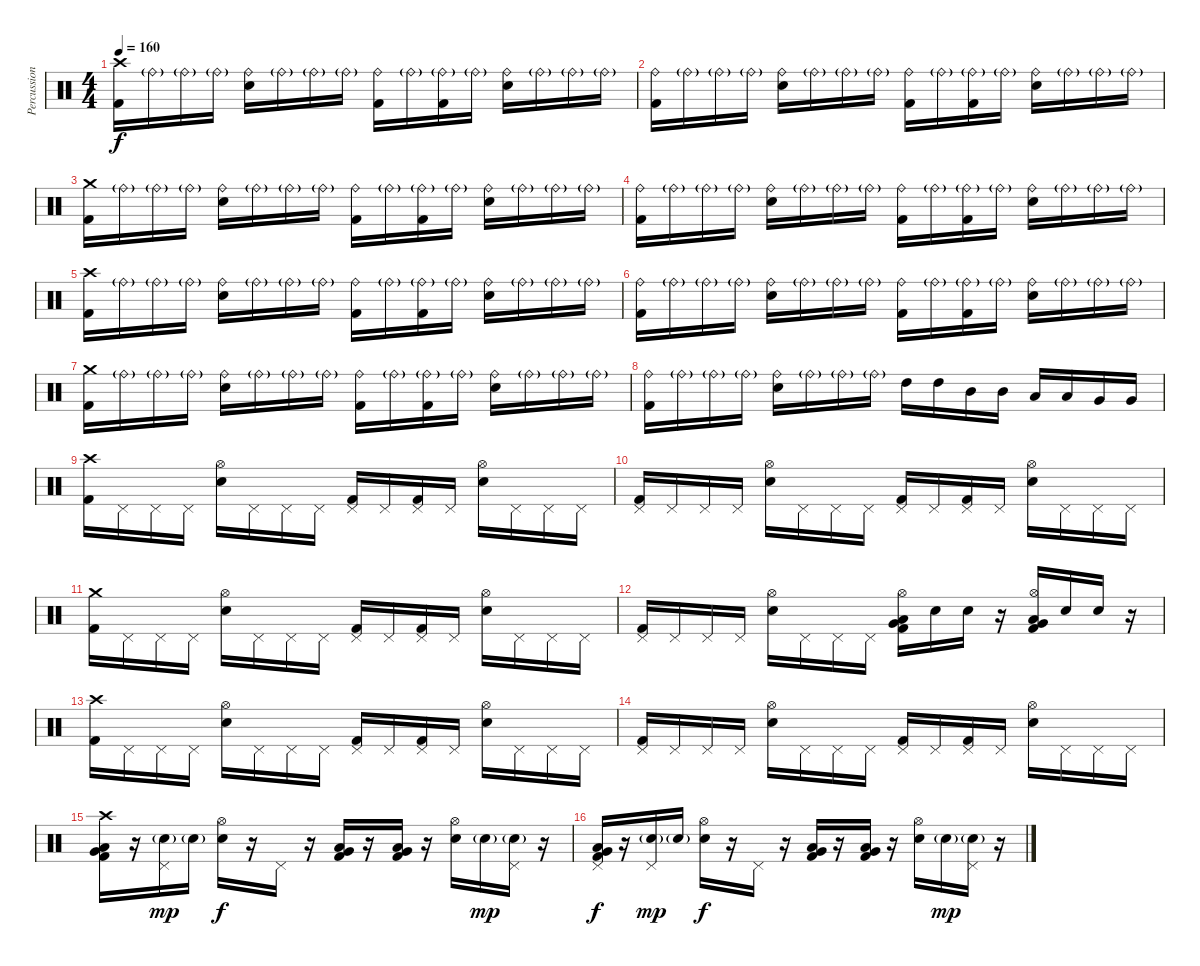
\track ("Percussion" "Percussion") {instrument percussion}
\staff {score}
\articulation defaults
\ts (4 4)
\tempo 160
\clef neutral
\ks c
("Crash high (hit)" "Kick (hit) 2").16{dy f} "Ride (bell)"{g}.16 "Ride (bell)"{g}.16 "Ride (bell)"{g}.16 ("Ride (bell)" "Electric Snare (hit)").16 "Ride (bell)"{g}.16 "Ride (bell)"{g}.16 "Ride (bell)"{g}.16 ("Ride (bell)" "Kick (hit) 2").16 "Ride (bell)"{g}.16 ("Ride (bell)"{g} "Kick (hit) 2").16 "Ride (bell)"{g}.16 ("Ride (bell)" "Electric Snare (hit)").16 "Ride (bell)"{g}.16 "Ride (bell)"{g}.16 "Ride (bell)"{g}.16 |
("Ride (bell)" "Kick (hit) 2").16 "Ride (bell)"{g}.16 "Ride (bell)"{g}.16 "Ride (bell)"{g}.16 ("Ride (bell)" "Electric Snare (hit)").16 "Ride (bell)"{g}.16 "Ride (bell)"{g}.16 "Ride (bell)"{g}.16 ("Ride (bell)" "Kick (hit) 2").16 "Ride (bell)"{g}.16 ("Ride (bell)"{g} "Kick (hit) 2").16 "Ride (bell)"{g}.16 ("Ride (bell)" "Electric Snare (hit)").16 "Ride (bell)"{g}.16 "Ride (bell)"{g}.16 "Ride (bell)"{g}.16 |
("Crash medium (hit)" "Kick (hit) 2").16 "Ride (bell)"{g}.16 "Ride (bell)"{g}.16 "Ride (bell)"{g}.16 ("Ride (bell)" "Electric Snare (hit)").16 "Ride (bell)"{g}.16 "Ride (bell)"{g}.16 "Ride (bell)"{g}.16 ("Ride (bell)" "Kick (hit) 2").16 "Ride (bell)"{g}.16 ("Ride (bell)"{g} "Kick (hit) 2").16 "Ride (bell)"{g}.16 ("Ride (bell)" "Electric Snare (hit)").16 "Ride (bell)"{g}.16 "Ride (bell)"{g}.16 "Ride (bell)"{g}.16 |
("Ride (bell)" "Kick (hit) 2").16 "Ride (bell)"{g}.16 "Ride (bell)"{g}.16 "Ride (bell)"{g}.16 ("Ride (bell)" "Electric Snare (hit)").16 "Ride (bell)"{g}.16 "Ride (bell)"{g}.16 "Ride (bell)"{g}.16 ("Ride (bell)" "Kick (hit) 2").16 "Ride (bell)"{g}.16 ("Ride (bell)"{g} "Kick (hit) 2").16 "Ride (bell)"{g}.16 ("Ride (bell)" "Electric Snare (hit)").16 "Ride (bell)"{g}.16 "Ride (bell)"{g}.16 "Ride (bell)"{g}.16 |
("Crash high (hit)" "Kick (hit) 2").16 "Ride (bell)"{g}.16 "Ride (bell)"{g}.16 "Ride (bell)"{g}.16 ("Ride (bell)" "Electric Snare (hit)").16 "Ride (bell)"{g}.16 "Ride (bell)"{g}.16 "Ride (bell)"{g}.16 ("Ride (bell)" "Kick (hit) 2").16 "Ride (bell)"{g}.16 ("Ride (bell)"{g} "Kick (hit) 2").16 "Ride (bell)"{g}.16 ("Ride (bell)" "Electric Snare (hit)").16 "Ride (bell)"{g}.16 "Ride (bell)"{g}.16 "Ride (bell)"{g}.16 |
("Ride (bell)" "Kick (hit) 2").16 "Ride (bell)"{g}.16 "Ride (bell)"{g}.16 "Ride (bell)"{g}.16 ("Ride (bell)" "Electric Snare (hit)").16 "Ride (bell)"{g}.16 "Ride (bell)"{g}.16 "Ride (bell)"{g}.16 ("Ride (bell)" "Kick (hit) 2").16 "Ride (bell)"{g}.16 ("Ride (bell)"{g} "Kick (hit) 2").16 "Ride (bell)"{g}.16 ("Ride (bell)" "Electric Snare (hit)").16 "Ride (bell)"{g}.16 "Ride (bell)"{g}.16 "Ride (bell)"{g}.16 |
("Crash medium (hit)" "Kick (hit) 2").16 "Ride (bell)"{g}.16 "Ride (bell)"{g}.16 "Ride (bell)"{g}.16 ("Ride (bell)" "Electric Snare (hit)").16 "Ride (bell)"{g}.16 "Ride (bell)"{g}.16 "Ride (bell)"{g}.16 ("Ride (bell)" "Kick (hit) 2").16 "Ride (bell)"{g}.16 ("Ride (bell)"{g} "Kick (hit) 2").16 "Ride (bell)"{g}.16 ("Ride (bell)" "Electric Snare (hit)").16 "Ride (bell)"{g}.16 "Ride (bell)"{g}.16 "Ride (bell)"{g}.16 |
("Ride (bell)" "Kick (hit) 2").16 "Ride (bell)"{g}.16 "Ride (bell)"{g}.16 "Ride (bell)"{g}.16 ("Ride (bell)" "Electric Snare (hit)").16 "Ride (bell)"{g}.16 "Ride (bell)"{g}.16 "Ride (bell)"{g}.16 "High Tom (hit)".16 "High Tom (hit)".16 "Mid Tom (hit)".16 "Mid Tom (hit)".16 "Low Tom (hit)".16 "Low Tom (hit)".16 "Very Low Tom (hit)".16 "Very Low Tom (hit)".16 |
("Crash high (hit)" "Kick (hit) 2").16 "Pedal Hi-Hat (hit)".16 "Pedal Hi-Hat (hit)".16 "Pedal Hi-Hat (hit)".16 ("Hi-Hat (open)" "Electric Snare (hit)").16 "Pedal Hi-Hat (hit)".16 "Pedal Hi-Hat (hit)".16 "Pedal Hi-Hat (hit)".16 ("Pedal Hi-Hat (hit)" "Kick (hit) 2").16 "Pedal Hi-Hat (hit)".16 ("Pedal Hi-Hat (hit)" "Kick (hit) 2").16 "Pedal Hi-Hat (hit)".16 ("Hi-Hat (open)" "Electric Snare (hit)").16 "Pedal Hi-Hat (hit)".16 "Pedal Hi-Hat (hit)".16 "Pedal Hi-Hat (hit)".16 |
("Pedal Hi-Hat (hit)" "Kick (hit) 2").16 "Pedal Hi-Hat (hit)".16 "Pedal Hi-Hat (hit)".16 "Pedal Hi-Hat (hit)".16 ("Hi-Hat (open)" "Electric Snare (hit)").16 "Pedal Hi-Hat (hit)".16 "Pedal Hi-Hat (hit)".16 "Pedal Hi-Hat (hit)".16 ("Pedal Hi-Hat (hit)" "Kick (hit) 2").16 "Pedal Hi-Hat (hit)".16 ("Pedal Hi-Hat (hit)" "Kick (hit) 2").16 "Pedal Hi-Hat (hit)".16 ("Hi-Hat (open)" "Electric Snare (hit)").16 "Pedal Hi-Hat (hit)".16 "Pedal Hi-Hat (hit)".16 "Pedal Hi-Hat (hit)".16 |
("Crash medium (hit)" "Kick (hit) 2").16 "Pedal Hi-Hat (hit)".16 "Pedal Hi-Hat (hit)".16 "Pedal Hi-Hat (hit)".16 ("Hi-Hat (open)" "Electric Snare (hit)").16 "Pedal Hi-Hat (hit)".16 "Pedal Hi-Hat (hit)".16 "Pedal Hi-Hat (hit)".16 ("Pedal Hi-Hat (hit)" "Kick (hit) 2").16 "Pedal Hi-Hat (hit)".16 ("Pedal Hi-Hat (hit)" "Kick (hit) 2").16 "Pedal Hi-Hat (hit)".16 ("Hi-Hat (open)" "Electric Snare (hit)").16 "Pedal Hi-Hat (hit)".16 "Pedal Hi-Hat (hit)".16 "Pedal Hi-Hat (hit)".16 |
("Pedal Hi-Hat (hit)" "Kick (hit) 2").16 "Pedal Hi-Hat (hit)".16 "Pedal Hi-Hat (hit)".16 "Pedal Hi-Hat (hit)".16 ("Hi-Hat (open)" "Electric Snare (hit)").16 "Pedal Hi-Hat (hit)".16 "Pedal Hi-Hat (hit)".16 "Pedal Hi-Hat (hit)".16 ("Hi-Hat (open)" "Low Tom (hit)" "Very Low Tom (hit)" "Kick (hit) 2").16 "Electric Snare (hit)".16 "Electric Snare (hit)".16 r.16 ("Hi-Hat (open)" "Very Low Tom (hit)" "Low Floor Tom (hit)" "Kick (hit) 2").16 "Electric Snare (hit)".16 "Electric Snare (hit)".16 r.16 |
("Crash high (hit)" "Kick (hit) 2").16 "Pedal Hi-Hat (hit)".16 "Pedal Hi-Hat (hit)".16 "Pedal Hi-Hat (hit)".16 ("Hi-Hat (open)" "Electric Snare (hit)").16 "Pedal Hi-Hat (hit)".16 "Pedal Hi-Hat (hit)".16 "Pedal Hi-Hat (hit)".16 ("Pedal Hi-Hat (hit)" "Kick (hit) 2").16 "Pedal Hi-Hat (hit)".16 ("Pedal Hi-Hat (hit)" "Kick (hit) 2").16 "Pedal Hi-Hat (hit)".16 ("Hi-Hat (open)" "Electric Snare (hit)").16 "Pedal Hi-Hat (hit)".16 "Pedal Hi-Hat (hit)".16 "Pedal Hi-Hat (hit)".16 |
("Pedal Hi-Hat (hit)" "Kick (hit) 2").16 "Pedal Hi-Hat (hit)".16 "Pedal Hi-Hat (hit)".16 "Pedal Hi-Hat (hit)".16 ("Hi-Hat (open)" "Electric Snare (hit)").16 "Pedal Hi-Hat (hit)".16 "Pedal Hi-Hat (hit)".16 "Pedal Hi-Hat (hit)".16 ("Pedal Hi-Hat (hit)" "Kick (hit) 2").16 "Pedal Hi-Hat (hit)".16 ("Pedal Hi-Hat (hit)" "Kick (hit) 2").16 "Pedal Hi-Hat (hit)".16 ("Hi-Hat (open)" "Electric Snare (hit)").16 "Pedal Hi-Hat (hit)".16 "Pedal Hi-Hat (hit)".16 "Pedal Hi-Hat (hit)".16 |
("Crash high (hit)" "Low Tom (hit)" "Very Low Tom (hit)" "Kick (hit) 2").16 r.16 ("Pedal Hi-Hat (hit)" "Electric Snare (hit)"{g}).16{dy mp} "Electric Snare (hit)"{g}.16 ("Hi-Hat (open)" "Electric Snare (hit)").16{dy f} r.16 "Pedal Hi-Hat (hit)".16 r.16 ("Very Low Tom (hit)" "Low Floor Tom (hit)" "Kick (hit) 2").16 r.16 ("Very Low Tom (hit)" "Low Floor Tom (hit)" "Kick (hit) 2").16 r.16 ("Hi-Hat (open)" "Electric Snare (hit)").16 "Electric Snare (hit)"{g}.16{dy mp} ("Pedal Hi-Hat (hit)" "Electric Snare (hit)"{g}).16 r.16 |
("Pedal Hi-Hat (hit)" "Low Tom (hit)" "Very Low Tom (hit)" "Kick (hit) 2").16{dy f} r.16 ("Pedal Hi-Hat (hit)" "Electric Snare (hit)"{g}).16{dy mp} "Electric Snare (hit)"{g}.16 ("Hi-Hat (open)" "Electric Snare (hit)").16{dy f} r.16 "Pedal Hi-Hat (hit)".16 r.16 ("Very Low Tom (hit)" "Low Floor Tom (hit)" "Kick (hit) 2").16 r.16 ("Very Low Tom (hit)" "Low Floor Tom (hit)" "Kick (hit) 2").16 r.16 ("Hi-Hat (open)" "Electric Snare (hit)").16 "Electric Snare (hit)"{g}.16{dy mp} ("Pedal Hi-Hat (hit)" "Electric Snare (hit)"{g}).16 r.16
